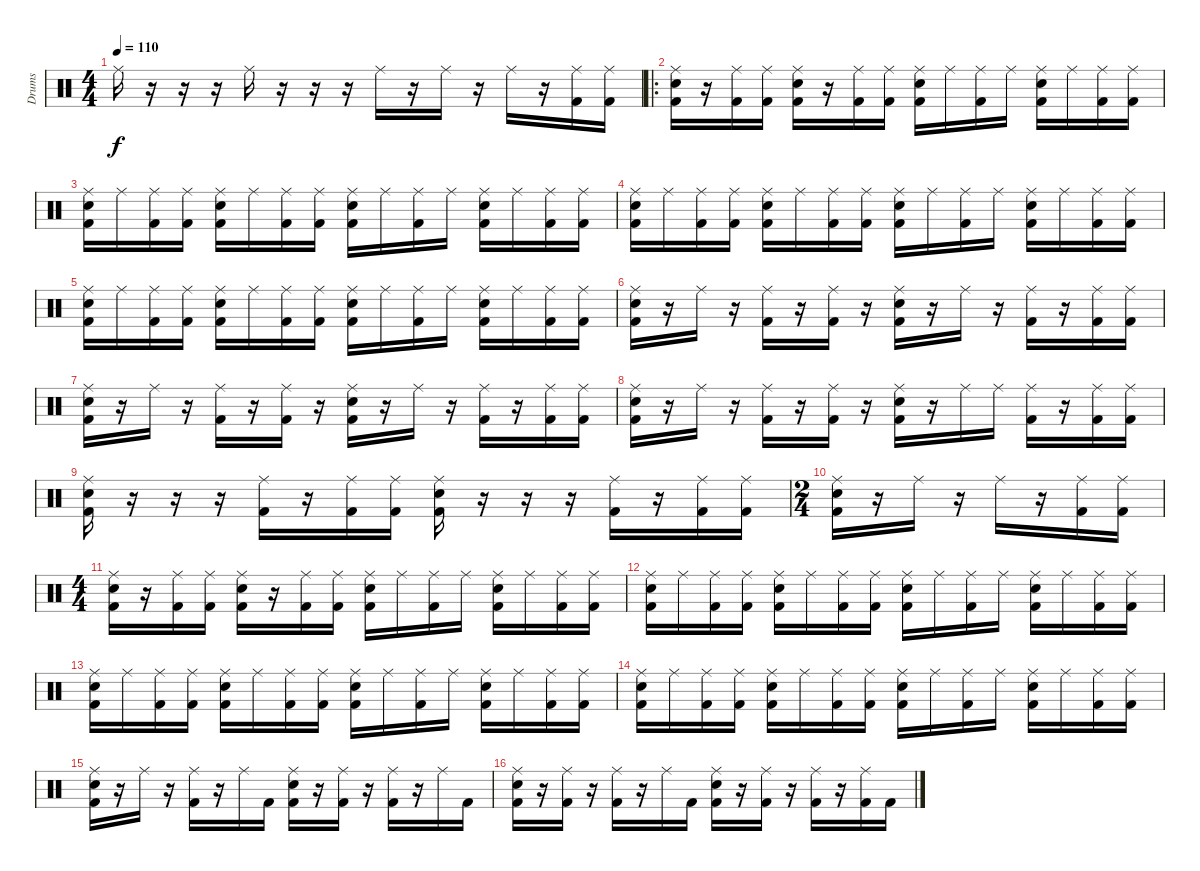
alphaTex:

\track ("Drums" "Drums") {instrument percussion}
\staff {score}
\articulation defaults
\ts (4 4)
\tempo 110
\clef neutral
\ks c "Ride (middle)".16{dy f}
r.16 r.16 r.16 "Ride (middle)".16 r.16 r.16 r.16 "Ride (middle)".16 r.16 "Ride (middle)".16 r.16 "Ride (middle)".16 r.16 ("Ride (middle)" "Kick (hit) 2").16 ("Ride (middle)" "Kick (hit) 2").16 |
\ro
("Ride (middle)" "Electric Snare (hit)" "Kick (hit) 2").16 r.16 ("Ride (middle)" "Kick (hit) 2").16 ("Ride (middle)" "Kick (hit) 2").16 ("Ride (middle)" "Electric Snare (hit)" "Kick (hit) 2").16 r.16 ("Ride (middle)" "Kick (hit) 2").16 ("Ride (middle)" "Kick (hit) 2").16 ("Ride (middle)" "Electric Snare (hit)" "Kick (hit) 2").16 "Ride (middle)".16 ("Ride (middle)" "Kick (hit) 2").16 "Ride (middle)".16 ("Ride (middle)" "Electric Snare (hit)" "Kick (hit) 2").16 "Ride (middle)".16 ("Ride (middle)" "Kick (hit) 2").16 ("Ride (middle)" "Kick (hit) 2").16 |
("Ride (middle)" "Electric Snare (hit)" "Kick (hit) 2").16 "Ride (middle)".16 ("Ride (middle)" "Kick (hit) 2").16 ("Ride (middle)" "Kick (hit) 2").16 ("Ride (middle)" "Electric Snare (hit)" "Kick (hit) 2").16 "Ride (middle)".16 ("Ride (middle)" "Kick (hit) 2").16 ("Ride (middle)" "Kick (hit) 2").16 ("Ride (middle)" "Electric Snare (hit)" "Kick (hit) 2").16 "Ride (middle)".16 ("Ride (middle)" "Kick (hit) 2").16 "Ride (middle)".16 ("Ride (middle)" "Electric Snare (hit)" "Kick (hit) 2").16 "Ride (middle)".16 ("Ride (middle)" "Kick (hit) 2").16 ("Ride (middle)" "Kick (hit) 2").16 |
("Ride (middle)" "Electric Snare (hit)" "Kick (hit) 2").16 "Ride (middle)".16 ("Ride (middle)" "Kick (hit) 2").16 ("Ride (middle)" "Kick (hit) 2").16 ("Ride (middle)" "Electric Snare (hit)" "Kick (hit) 2").16 "Ride (middle)".16 ("Ride (middle)" "Kick (hit) 2").16 ("Ride (middle)" "Kick (hit) 2").16 ("Ride (middle)" "Electric Snare (hit)" "Kick (hit) 2").16 "Ride (middle)".16 ("Ride (middle)" "Kick (hit) 2").16 "Ride (middle)".16 ("Ride (middle)" "Electric Snare (hit)" "Kick (hit) 2").16 "Ride (middle)".16 ("Ride (middle)" "Kick (hit) 2").16 ("Ride (middle)" "Kick (hit) 2").16 |
("Ride (middle)" "Electric Snare (hit)" "Kick (hit) 2").16 "Ride (middle)".16 ("Ride (middle)" "Kick (hit) 2").16 ("Ride (middle)" "Kick (hit) 2").16 ("Ride (middle)" "Electric Snare (hit)" "Kick (hit) 2").16 "Ride (middle)".16 ("Ride (middle)" "Kick (hit) 2").16 ("Ride (middle)" "Kick (hit) 2").16 ("Ride (middle)" "Electric Snare (hit)" "Kick (hit) 2").16 "Ride (middle)".16 ("Ride (middle)" "Kick (hit) 2").16 "Ride (middle)".16 ("Ride (middle)" "Electric Snare (hit)" "Kick (hit) 2").16 "Ride (middle)".16 ("Ride (middle)" "Kick (hit) 2").16 ("Ride (middle)" "Kick (hit) 2").16 |
("Ride (middle)" "Electric Snare (hit)" "Kick (hit) 2").16 r.16 "Ride (middle)".16 r.16 ("Ride (middle)" "Kick (hit) 2").16 r.16 ("Ride (middle)" "Kick (hit) 2").16 r.16 ("Ride (middle)" "Electric Snare (hit)" "Kick (hit) 2").16 r.16 "Ride (middle)".16 r.16 ("Ride (middle)" "Kick (hit) 2").16 r.16 ("Ride (middle)" "Kick (hit) 2").16 ("Ride (middle)" "Kick (hit) 2").16 |
("Ride (middle)" "Electric Snare (hit)" "Kick (hit) 2").16 r.16 "Ride (middle)".16 r.16 ("Ride (middle)" "Kick (hit) 2").16 r.16 ("Ride (middle)" "Kick (hit) 2").16 r.16 ("Ride (middle)" "Electric Snare (hit)" "Kick (hit) 2").16 r.16 "Ride (middle)".16 r.16 ("Ride (middle)" "Kick (hit) 2").16 r.16 ("Ride (middle)" "Kick (hit) 2").16 ("Ride (middle)" "Kick (hit) 2").16 |
("Ride (middle)" "Electric Snare (hit)" "Kick (hit) 2").16 r.16 "Ride (middle)".16 r.16 ("Ride (middle)" "Kick (hit) 2").16 r.16 ("Ride (middle)" "Kick (hit) 2").16 r.16 ("Ride (middle)" "Electric Snare (hit)" "Kick (hit) 2").16 r.16 "Ride (middle)".16 "Ride (middle)".16 ("Ride (middle)" "Kick (hit) 2").16 r.16 ("Ride (middle)" "Kick (hit) 2").16 ("Ride (middle)" "Kick (hit) 2").16 |
("Ride (middle)" "Electric Snare (hit)" "Kick (hit) 2").16 r.16 r.16 r.16 ("Ride (middle)" "Kick (hit) 2").16 r.16 ("Ride (middle)" "Kick (hit) 2").16 ("Ride (middle)" "Kick (hit) 2").16 ("Ride (middle)" "Electric Snare (hit)" "Kick (hit) 2").16 r.16 r.16 r.16 ("Ride (middle)" "Kick (hit) 2").16 r.16 ("Ride (middle)" "Kick (hit) 2").16 ("Ride (middle)" "Kick (hit) 2").16 |
\ts (2 4)
("Ride (middle)" "Electric Snare (hit)" "Kick (hit) 2").16 r.16 "Ride (middle)".16 r.16 "Ride (middle)".16 r.16 ("Ride (middle)" "Kick (hit) 2").16 ("Ride (middle)" "Kick (hit) 2").16 |
\ts (4 4)
("Ride (middle)" "Electric Snare (hit)" "Kick (hit) 2").16 r.16 ("Ride (middle)" "Kick (hit) 2").16 ("Ride (middle)" "Kick (hit) 2").16 ("Ride (middle)" "Electric Snare (hit)" "Kick (hit) 2").16 r.16 ("Ride (middle)" "Kick (hit) 2").16 ("Ride (middle)" "Kick (hit) 2").16 ("Ride (middle)" "Electric Snare (hit)" "Kick (hit) 2").16 "Ride (middle)".16 ("Ride (middle)" "Kick (hit) 2").16 "Ride (middle)".16 ("Ride (middle)" "Electric Snare (hit)" "Kick (hit) 2").16 "Ride (middle)".16 ("Ride (middle)" "Kick (hit) 2").16 ("Ride (middle)" "Kick (hit) 2").16 |
("Ride (middle)" "Electric Snare (hit)" "Kick (hit) 2").16 "Ride (middle)".16 ("Ride (middle)" "Kick (hit) 2").16 ("Ride (middle)" "Kick (hit) 2").16 ("Ride (middle)" "Electric Snare (hit)" "Kick (hit) 2").16 "Ride (middle)".16 ("Ride (middle)" "Kick (hit) 2").16 ("Ride (middle)" "Kick (hit) 2").16 ("Ride (middle)" "Electric Snare (hit)" "Kick (hit) 2").16 "Ride (middle)".16 ("Ride (middle)" "Kick (hit) 2").16 "Ride (middle)".16 ("Ride (middle)" "Electric Snare (hit)" "Kick (hit) 2").16 "Ride (middle)".16 ("Ride (middle)" "Kick (hit) 2").16 ("Ride (middle)" "Kick (hit) 2").16 |
("Ride (middle)" "Electric Snare (hit)" "Kick (hit) 2").16 "Ride (middle)".16 ("Ride (middle)" "Kick (hit) 2").16 ("Ride (middle)" "Kick (hit) 2").16 ("Ride (middle)" "Electric Snare (hit)" "Kick (hit) 2").16 "Ride (middle)".16 ("Ride (middle)" "Kick (hit) 2").16 ("Ride (middle)" "Kick (hit) 2").16 ("Ride (middle)" "Electric Snare (hit)" "Kick (hit) 2").16 "Ride (middle)".16 ("Ride (middle)" "Kick (hit) 2").16 "Ride (middle)".16 ("Ride (middle)" "Electric Snare (hit)" "Kick (hit) 2").16 "Ride (middle)".16 ("Ride (middle)" "Kick (hit) 2").16 ("Ride (middle)" "Kick (hit) 2").16 |
("Ride (middle)" "Electric Snare (hit)" "Kick (hit) 2").16 "Ride (middle)".16 ("Ride (middle)" "Kick (hit) 2").16 ("Ride (middle)" "Kick (hit) 2").16 ("Ride (middle)" "Electric Snare (hit)" "Kick (hit) 2").16 "Ride (middle)".16 ("Ride (middle)" "Kick (hit) 2").16 ("Ride (middle)" "Kick (hit) 2").16 ("Ride (middle)" "Electric Snare (hit)" "Kick (hit) 2").16 "Ride (middle)".16 ("Ride (middle)" "Kick (hit) 2").16 "Ride (middle)".16 ("Ride (middle)" "Electric Snare (hit)" "Kick (hit) 2").16 "Ride (middle)".16 ("Ride (middle)" "Kick (hit) 2").16 ("Ride (middle)" "Kick (hit) 2").16 |
("Ride (middle)" "Electric Snare (hit)" "Kick (hit) 2").16 r.16 "Ride (middle)".16 r.16 ("Ride (middle)" "Kick (hit) 2").16 r.16 "Ride (middle)".16 "Kick (hit) 2".16 ("Ride (middle)" "Electric Snare (hit)" "Kick (hit) 2").16 r.16 ("Ride (middle)" "Kick (hit) 2").16 r.16 ("Ride (middle)" "Kick (hit) 2").16 r.16 "Ride (middle)".16 "Kick (hit) 2".16 |
("Ride (middle)" "Electric Snare (hit)" "Kick (hit) 2").16 r.16 ("Ride (middle)" "Kick (hit) 2").16 r.16 ("Ride (middle)" "Kick (hit) 2").16 r.16 "Ride (middle)".16 "Kick (hit) 2".16 ("Ride (middle)" "Electric Snare (hit)" "Kick (hit) 2").16 r.16 ("Ride (middle)" "Kick (hit) 2").16 r.16 ("Ride (middle)" "Kick (hit) 2").16 r.16 ("Ride (middle)" "Kick (hit) 2").16 "Kick (hit) 2".16
